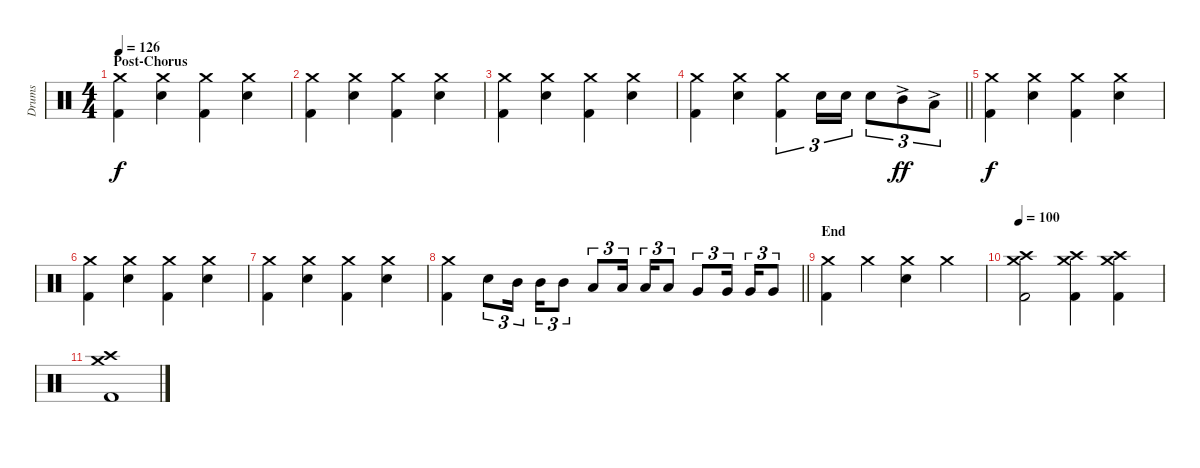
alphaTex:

\track ("Drums" "Drums") {instrument percussion}
\staff {score}
\articulation defaults
\ts (4 4)
\section ("" "Post-Chorus")
\tempo 126
\clef neutral
\ks c
("Kick (hit) 2" "Crash medium (hit)").4{dy f} ("Snare (hit) 2" "Crash medium (hit)").4 ("Kick (hit) 2" "Crash medium (hit)").4 ("Snare (hit) 2" "Crash medium (hit)").4 |
("Kick (hit) 2" "Crash medium (hit)").4 ("Snare (hit) 2" "Crash medium (hit)").4 ("Kick (hit) 2" "Crash medium (hit)").4 ("Snare (hit) 2" "Crash medium (hit)").4 |
("Kick (hit) 2" "Crash medium (hit)").4 ("Snare (hit) 2" "Crash medium (hit)").4 ("Kick (hit) 2" "Crash medium (hit)").4 ("Snare (hit) 2" "Crash medium (hit)").4 |
\barLineRight lightlight
("Kick (hit) 2" "Crash medium (hit)").4 ("Snare (hit) 2" "Crash medium (hit)").4 ("Kick (hit) 2" "Crash medium (hit)").4{tu (3 2)} "Snare (hit) 2".16{tu (3 2)} "Snare (hit) 2".16{tu (3 2)} "Snare (hit) 2".8{tu (3 2)} "Mid Tom (hit)"{ac}.8{tu (3 2) dy ff} "Low Tom (hit)"{ac}.8{tu (3 2)} |
\section ("" "")
("Kick (hit) 2" "Crash medium (hit)").4{dy f} ("Snare (hit) 2" "Crash medium (hit)").4 ("Kick (hit) 2" "Crash medium (hit)").4 ("Snare (hit) 2" "Crash medium (hit)").4 |
("Kick (hit) 2" "Crash medium (hit)").4 ("Snare (hit) 2" "Crash medium (hit)").4 ("Kick (hit) 2" "Crash medium (hit)").4 ("Snare (hit) 2" "Crash medium (hit)").4 |
("Kick (hit) 2" "Crash medium (hit)").4 ("Snare (hit) 2" "Crash medium (hit)").4 ("Kick (hit) 2" "Crash medium (hit)").4 ("Snare (hit) 2" "Crash medium (hit)").4 |
\barLineRight lightlight
("Kick (hit) 2" "Crash medium (hit)").4 "Snare (hit) 2".8{tu (3 2)} "Mid Tom (hit)".16{tu (3 2) beam splitsecondary} "Mid Tom (hit)".16{tu (3 2)} "Mid Tom (hit)".8{tu (3 2)} "Low Tom (hit)".8{tu (3 2)} "Low Tom (hit)".16{tu (3 2) beam splitsecondary} "Low Tom (hit)".16{tu (3 2)} "Low Tom (hit)".8{tu (3 2)} "Very Low Tom (hit)".8{tu (3 2)} "Very Low Tom (hit)".16{tu (3 2) beam splitsecondary} "Very Low Tom (hit)".16{tu (3 2)} "Very Low Tom (hit)".8{tu (3 2)} |
\section ("" "End")
("Kick (hit) 2" "Crash medium (hit)").4 "Crash medium (hit)".4 ("Snare (hit) 2" "Crash medium (hit)").4 "Crash medium (hit)".4 |
\tempo 100
("Kick (hit) 2" "Crash medium (hit)" "Crash high (hit)").2 ("Kick (hit) 2" "Crash medium (hit)" "Crash high (hit)").4 ("Kick (hit) 2" "Crash medium (hit)" "Crash high (hit)").4 |
("Kick (hit) 2" "Crash medium (hit)" "Crash high (hit)").1
